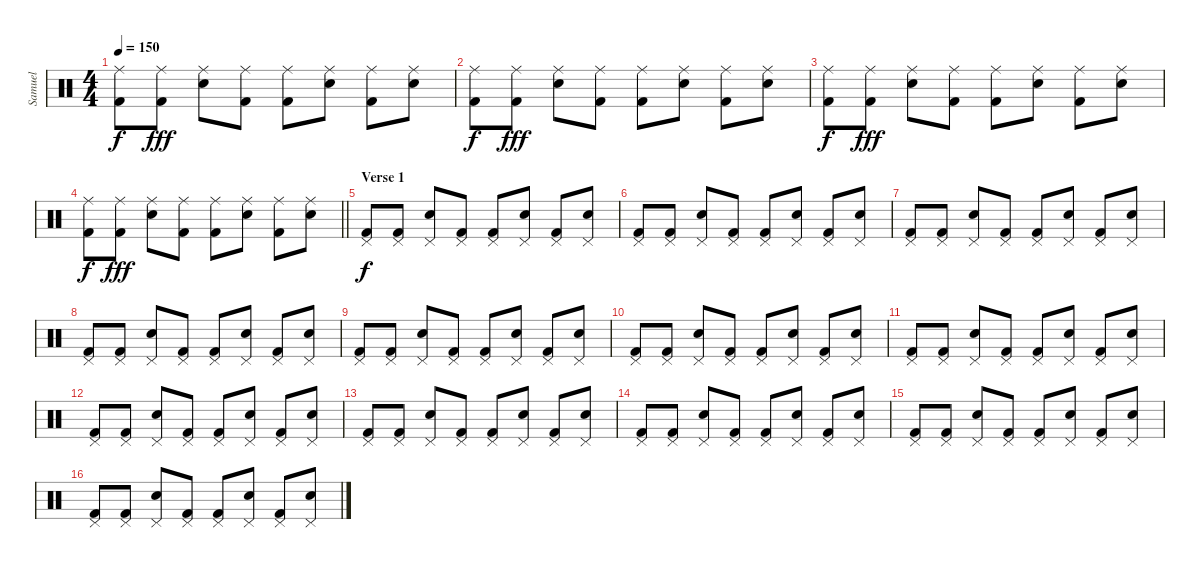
\track ("Samuel" "Samuel") {instrument percussion}
\staff {score}
\articulation defaults
\ts (4 4)
\tempo 150
\clef neutral
\ks c
("Ride (middle)" "Kick (hit) 2").8{dy f} ("Ride (middle)" "Kick (hit) 2").8{dy fff} ("Ride (middle)" "Snare (hit) 2").8 ("Ride (middle)" "Kick (hit) 2").8 ("Ride (middle)" "Kick (hit) 2").8 ("Ride (middle)" "Snare (hit) 2").8 ("Ride (middle)" "Kick (hit) 2").8 ("Ride (middle)" "Snare (hit) 2").8 |
("Ride (middle)" "Kick (hit) 2").8{dy f} ("Ride (middle)" "Kick (hit) 2").8{dy fff} ("Ride (middle)" "Snare (hit) 2").8 ("Ride (middle)" "Kick (hit) 2").8 ("Ride (middle)" "Kick (hit) 2").8 ("Ride (middle)" "Snare (hit) 2").8 ("Ride (middle)" "Kick (hit) 2").8 ("Ride (middle)" "Snare (hit) 2").8 |
("Ride (middle)" "Kick (hit) 2").8{dy f} ("Ride (middle)" "Kick (hit) 2").8{dy fff} ("Ride (middle)" "Snare (hit) 2").8 ("Ride (middle)" "Kick (hit) 2").8 ("Ride (middle)" "Kick (hit) 2").8 ("Ride (middle)" "Snare (hit) 2").8 ("Ride (middle)" "Kick (hit) 2").8 ("Ride (middle)" "Snare (hit) 2").8 |
\barLineRight lightlight
("Ride (middle)" "Kick (hit) 2").8{dy f} ("Ride (middle)" "Kick (hit) 2").8{dy fff} ("Ride (middle)" "Snare (hit) 2").8 ("Ride (middle)" "Kick (hit) 2").8 ("Ride (middle)" "Kick (hit) 2").8 ("Ride (middle)" "Snare (hit) 2").8 ("Ride (middle)" "Kick (hit) 2").8 ("Ride (middle)" "Snare (hit) 2").8 |
\section ("" "Verse 1")
("Pedal Hi-Hat (hit)" "Kick (hit) 2").8{dy f} ("Pedal Hi-Hat (hit)" "Kick (hit) 2").8 ("Pedal Hi-Hat (hit)" "Snare (hit) 2").8 ("Pedal Hi-Hat (hit)" "Kick (hit) 2").8 ("Pedal Hi-Hat (hit)" "Kick (hit) 2").8 ("Pedal Hi-Hat (hit)" "Snare (hit) 2").8 ("Pedal Hi-Hat (hit)" "Kick (hit) 2").8 ("Pedal Hi-Hat (hit)" "Snare (hit) 2").8 |
("Pedal Hi-Hat (hit)" "Kick (hit) 2").8 ("Pedal Hi-Hat (hit)" "Kick (hit) 2").8 ("Pedal Hi-Hat (hit)" "Snare (hit) 2").8 ("Pedal Hi-Hat (hit)" "Kick (hit) 2").8 ("Pedal Hi-Hat (hit)" "Kick (hit) 2").8 ("Pedal Hi-Hat (hit)" "Snare (hit) 2").8 ("Pedal Hi-Hat (hit)" "Kick (hit) 2").8 ("Pedal Hi-Hat (hit)" "Snare (hit) 2").8 |
("Pedal Hi-Hat (hit)" "Kick (hit) 2").8 ("Pedal Hi-Hat (hit)" "Kick (hit) 2").8 ("Pedal Hi-Hat (hit)" "Snare (hit) 2").8 ("Pedal Hi-Hat (hit)" "Kick (hit) 2").8 ("Pedal Hi-Hat (hit)" "Kick (hit) 2").8 ("Pedal Hi-Hat (hit)" "Snare (hit) 2").8 ("Pedal Hi-Hat (hit)" "Kick (hit) 2").8 ("Pedal Hi-Hat (hit)" "Snare (hit) 2").8 |
("Pedal Hi-Hat (hit)" "Kick (hit) 2").8 ("Pedal Hi-Hat (hit)" "Kick (hit) 2").8 ("Pedal Hi-Hat (hit)" "Snare (hit) 2").8 ("Pedal Hi-Hat (hit)" "Kick (hit) 2").8 ("Pedal Hi-Hat (hit)" "Kick (hit) 2").8 ("Pedal Hi-Hat (hit)" "Snare (hit) 2").8 ("Pedal Hi-Hat (hit)" "Kick (hit) 2").8 ("Pedal Hi-Hat (hit)" "Snare (hit) 2").8 |
("Pedal Hi-Hat (hit)" "Kick (hit) 2").8 ("Pedal Hi-Hat (hit)" "Kick (hit) 2").8 ("Pedal Hi-Hat (hit)" "Snare (hit) 2").8 ("Pedal Hi-Hat (hit)" "Kick (hit) 2").8 ("Pedal Hi-Hat (hit)" "Kick (hit) 2").8 ("Pedal Hi-Hat (hit)" "Snare (hit) 2").8 ("Pedal Hi-Hat (hit)" "Kick (hit) 2").8 ("Pedal Hi-Hat (hit)" "Snare (hit) 2").8 |
("Pedal Hi-Hat (hit)" "Kick (hit) 2").8 ("Pedal Hi-Hat (hit)" "Kick (hit) 2").8 ("Pedal Hi-Hat (hit)" "Snare (hit) 2").8 ("Pedal Hi-Hat (hit)" "Kick (hit) 2").8 ("Pedal Hi-Hat (hit)" "Kick (hit) 2").8 ("Pedal Hi-Hat (hit)" "Snare (hit) 2").8 ("Pedal Hi-Hat (hit)" "Kick (hit) 2").8 ("Pedal Hi-Hat (hit)" "Snare (hit) 2").8 |
("Pedal Hi-Hat (hit)" "Kick (hit) 2").8 ("Pedal Hi-Hat (hit)" "Kick (hit) 2").8 ("Pedal Hi-Hat (hit)" "Snare (hit) 2").8 ("Pedal Hi-Hat (hit)" "Kick (hit) 2").8 ("Pedal Hi-Hat (hit)" "Kick (hit) 2").8 ("Pedal Hi-Hat (hit)" "Snare (hit) 2").8 ("Pedal Hi-Hat (hit)" "Kick (hit) 2").8 ("Pedal Hi-Hat (hit)" "Snare (hit) 2").8 |
("Pedal Hi-Hat (hit)" "Kick (hit) 2").8 ("Pedal Hi-Hat (hit)" "Kick (hit) 2").8 ("Pedal Hi-Hat (hit)" "Snare (hit) 2").8 ("Pedal Hi-Hat (hit)" "Kick (hit) 2").8 ("Pedal Hi-Hat (hit)" "Kick (hit) 2").8 ("Pedal Hi-Hat (hit)" "Snare (hit) 2").8 ("Pedal Hi-Hat (hit)" "Kick (hit) 2").8 ("Pedal Hi-Hat (hit)" "Snare (hit) 2").8 |
("Pedal Hi-Hat (hit)" "Kick (hit) 2").8 ("Pedal Hi-Hat (hit)" "Kick (hit) 2").8 ("Pedal Hi-Hat (hit)" "Snare (hit) 2").8 ("Pedal Hi-Hat (hit)" "Kick (hit) 2").8 ("Pedal Hi-Hat (hit)" "Kick (hit) 2").8 ("Pedal Hi-Hat (hit)" "Snare (hit) 2").8 ("Pedal Hi-Hat (hit)" "Kick (hit) 2").8 ("Pedal Hi-Hat (hit)" "Snare (hit) 2").8 |
("Pedal Hi-Hat (hit)" "Kick (hit) 2").8 ("Pedal Hi-Hat (hit)" "Kick (hit) 2").8 ("Pedal Hi-Hat (hit)" "Snare (hit) 2").8 ("Pedal Hi-Hat (hit)" "Kick (hit) 2").8 ("Pedal Hi-Hat (hit)" "Kick (hit) 2").8 ("Pedal Hi-Hat (hit)" "Snare (hit) 2").8 ("Pedal Hi-Hat (hit)" "Kick (hit) 2").8 ("Pedal Hi-Hat (hit)" "Snare (hit) 2").8 |
("Pedal Hi-Hat (hit)" "Kick (hit) 2").8 ("Pedal Hi-Hat (hit)" "Kick (hit) 2").8 ("Pedal Hi-Hat (hit)" "Snare (hit) 2").8 ("Pedal Hi-Hat (hit)" "Kick (hit) 2").8 ("Pedal Hi-Hat (hit)" "Kick (hit) 2").8 ("Pedal Hi-Hat (hit)" "Snare (hit) 2").8 ("Pedal Hi-Hat (hit)" "Kick (hit) 2").8 ("Pedal Hi-Hat (hit)" "Snare (hit) 2").8 |
("Pedal Hi-Hat (hit)" "Kick (hit) 2").8 ("Pedal Hi-Hat (hit)" "Kick (hit) 2").8 ("Pedal Hi-Hat (hit)" "Snare (hit) 2").8 ("Pedal Hi-Hat (hit)" "Kick (hit) 2").8 ("Pedal Hi-Hat (hit)" "Kick (hit) 2").8 ("Pedal Hi-Hat (hit)" "Snare (hit) 2").8 ("Pedal Hi-Hat (hit)" "Kick (hit) 2").8 ("Pedal Hi-Hat (hit)" "Snare (hit) 2").8
